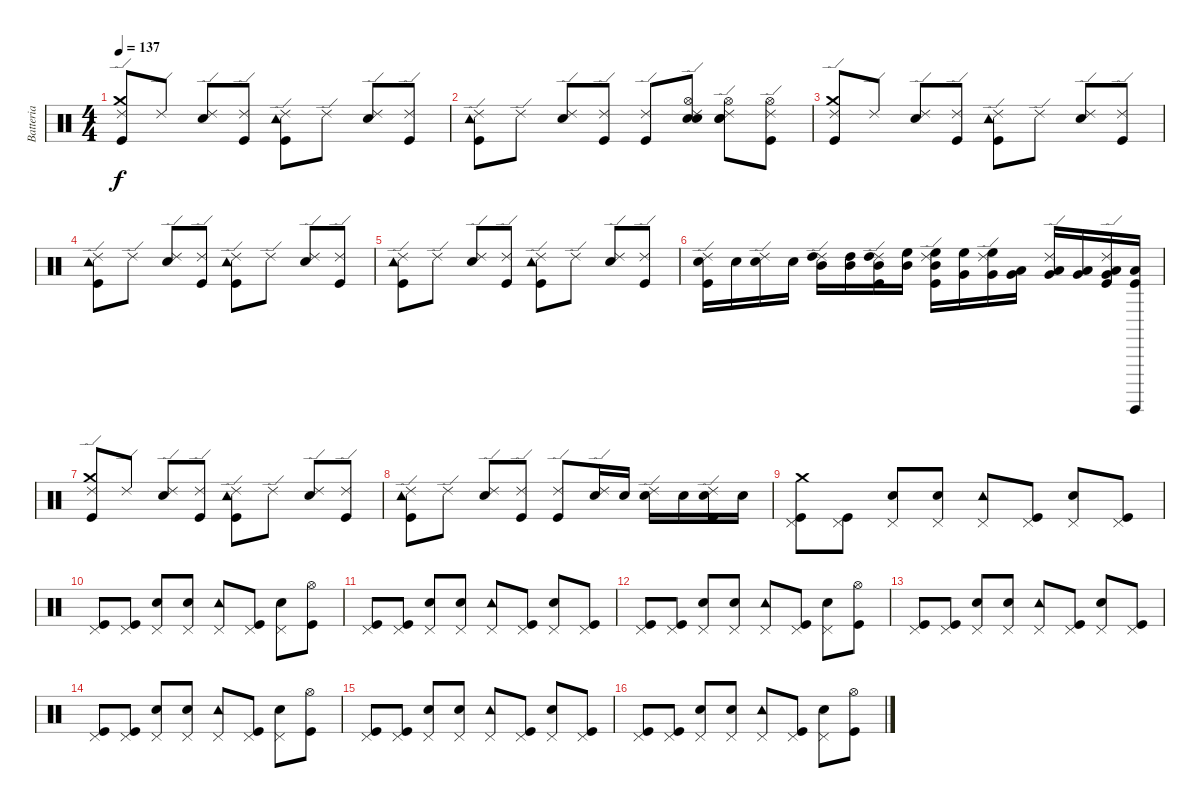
\track ("Batteria" "Batteria") {instrument percussion}
\staff {score}
\articulation defaults
\ts (4 4)
\tempo 137
\clef neutral
\ks c
("Ride (edge) 2" "Crash medium (hit)" "Kick (hit)").8{dy f} "Ride (edge) 2".8 ("Ride (edge) 2" "Electric Snare (hit)").8 ("Ride (edge) 2" "Kick (hit)").8 ("Ride (edge) 2" "Tambourine (hit)" "Kick (hit)").8 "Ride (edge) 2".8 ("Ride (edge) 2" "Electric Snare (hit)").8 ("Ride (edge) 2" "Kick (hit)").8 |
("Ride (edge) 2" "Tambourine (hit)" "Kick (hit)").8 "Ride (edge) 2".8 ("Ride (edge) 2" "Electric Snare (hit)").8 ("Ride (edge) 2" "Kick (hit)").8 ("Ride (edge) 2" "Kick (hit)").8 ("Ride (edge) 2" "Hi-Hat (open)" "Snare (hit) 2" "Electric Snare (hit)").8 ("Ride (edge) 2" "Hi-Hat (open)" "Snare (hit) 2" "Electric Snare (hit)").8 ("Ride (edge) 2" "Hi-Hat (open)" "Kick (hit)").8 |
("Ride (edge) 2" "Crash medium (hit)" "Kick (hit)").8 "Ride (edge) 2".8 ("Ride (edge) 2" "Electric Snare (hit)").8 ("Ride (edge) 2" "Kick (hit)").8 ("Ride (edge) 2" "Tambourine (hit)" "Kick (hit)").8 "Ride (edge) 2".8 ("Ride (edge) 2" "Electric Snare (hit)").8 ("Ride (edge) 2" "Kick (hit)").8 |
("Ride (edge) 2" "Tambourine (hit)" "Kick (hit)").8 "Ride (edge) 2".8 ("Ride (edge) 2" "Electric Snare (hit)").8 ("Ride (edge) 2" "Kick (hit)").8 ("Ride (edge) 2" "Tambourine (hit)" "Kick (hit)").8 "Ride (edge) 2".8 ("Ride (edge) 2" "Electric Snare (hit)").8 ("Ride (edge) 2" "Kick (hit)").8 |
("Ride (edge) 2" "Tambourine (hit)" "Kick (hit)").8 "Ride (edge) 2".8 ("Ride (edge) 2" "Electric Snare (hit)").8 ("Ride (edge) 2" "Kick (hit)").8 ("Ride (edge) 2" "Tambourine (hit)" "Kick (hit)").8 "Ride (edge) 2".8 ("Ride (edge) 2" "Electric Snare (hit)").8 ("Ride (edge) 2" "Kick (hit)").8 |
("Ride (edge) 2" "Electric Snare (hit)" "Kick (hit)").16 "Electric Snare (hit)".16 ("Ride (edge) 2" "Electric Snare (hit)").16 "Electric Snare (hit)".16 ("Ride (edge) 2" "Mid Tom (hit)" "High Tom (hit)").16 ("Mid Tom (hit)" "High Tom (hit)").16 ("Ride (edge) 2" "Mid Tom (hit)" "High Tom (hit)" "Kick (hit)").16 ("High Floor Tom (hit)" "Mid Tom (hit)").16 ("Ride (edge) 2" "High Floor Tom (hit)" "Mid Tom (hit)" "Kick (hit)").16 ("High Floor Tom (hit)" "Very Low Tom (hit)").16 ("Ride (edge) 2" "High Floor Tom (hit)" "Very Low Tom (hit)").16 ("Very Low Tom (hit)" "Low Tom (hit)").16 ("Ride (edge) 2" "Very Low Tom (hit)" "Low Tom (hit)").16 ("Very Low Tom (hit)" "Low Floor Tom (hit)").16 ("Ride (edge) 2" "Very Low Tom (hit)" "Low Floor Tom (hit)" "Kick (hit)").16 ("Surdo (hit)" "Low Floor Tom (hit)" "Kick (hit)").16 |
("Ride (edge) 2" "Crash medium (hit)" "Kick (hit)").8 "Ride (edge) 2".8 ("Ride (edge) 2" "Electric Snare (hit)").8 ("Ride (edge) 2" "Kick (hit)").8 ("Ride (edge) 2" "Tambourine (hit)" "Kick (hit)").8 "Ride (edge) 2".8 ("Ride (edge) 2" "Electric Snare (hit)").8 ("Ride (edge) 2" "Kick (hit)").8 |
("Ride (edge) 2" "Tambourine (hit)" "Kick (hit)").8 "Ride (edge) 2".8 ("Ride (edge) 2" "Electric Snare (hit)").8 ("Ride (edge) 2" "Kick (hit)").8 ("Ride (edge) 2" "Kick (hit)").8 ("Ride (edge) 2" "Electric Snare (hit)").16 "Electric Snare (hit)".16 ("Ride (edge) 2" "Electric Snare (hit)").16 "Electric Snare (hit)".16 ("Ride (edge) 2" "Electric Snare (hit)" "Kick (hit)").16 "Electric Snare (hit)".16 |
("Pedal Hi-Hat (hit)" "Crash medium (hit)" "Kick (hit)").8 ("Pedal Hi-Hat (hit)" "Kick (hit)").8 ("Pedal Hi-Hat (hit)" "Electric Snare (hit)").8 ("Pedal Hi-Hat (hit)" "Electric Snare (hit)").8 ("Pedal Hi-Hat (hit)" "Tambourine (hit)").8 ("Pedal Hi-Hat (hit)" "Kick (hit)").8 ("Pedal Hi-Hat (hit)" "Electric Snare (hit)").8 ("Pedal Hi-Hat (hit)" "Kick (hit)").8 |
("Pedal Hi-Hat (hit)" "Kick (hit)").8 ("Pedal Hi-Hat (hit)" "Kick (hit)").8 ("Pedal Hi-Hat (hit)" "Electric Snare (hit)").8 ("Pedal Hi-Hat (hit)" "Electric Snare (hit)").8 ("Pedal Hi-Hat (hit)" "Tambourine (hit)").8 ("Pedal Hi-Hat (hit)" "Kick (hit)").8 ("Pedal Hi-Hat (hit)" "Electric Snare (hit)").8 ("Hi-Hat (open)" "Kick (hit)").8 |
("Pedal Hi-Hat (hit)" "Kick (hit)").8 ("Pedal Hi-Hat (hit)" "Kick (hit)").8 ("Pedal Hi-Hat (hit)" "Electric Snare (hit)").8 ("Pedal Hi-Hat (hit)" "Electric Snare (hit)").8 ("Pedal Hi-Hat (hit)" "Tambourine (hit)").8 ("Pedal Hi-Hat (hit)" "Kick (hit)").8 ("Pedal Hi-Hat (hit)" "Electric Snare (hit)").8 ("Pedal Hi-Hat (hit)" "Kick (hit)").8 |
("Pedal Hi-Hat (hit)" "Kick (hit)").8 ("Pedal Hi-Hat (hit)" "Kick (hit)").8 ("Pedal Hi-Hat (hit)" "Electric Snare (hit)").8 ("Pedal Hi-Hat (hit)" "Electric Snare (hit)").8 ("Pedal Hi-Hat (hit)" "Tambourine (hit)").8 ("Pedal Hi-Hat (hit)" "Kick (hit)").8 ("Pedal Hi-Hat (hit)" "Electric Snare (hit)").8 ("Hi-Hat (open)" "Kick (hit)").8 |
("Pedal Hi-Hat (hit)" "Kick (hit)").8 ("Pedal Hi-Hat (hit)" "Kick (hit)").8 ("Pedal Hi-Hat (hit)" "Electric Snare (hit)").8 ("Pedal Hi-Hat (hit)" "Electric Snare (hit)").8 ("Pedal Hi-Hat (hit)" "Tambourine (hit)").8 ("Pedal Hi-Hat (hit)" "Kick (hit)").8 ("Pedal Hi-Hat (hit)" "Electric Snare (hit)").8 ("Pedal Hi-Hat (hit)" "Kick (hit)").8 |
("Pedal Hi-Hat (hit)" "Kick (hit)").8 ("Pedal Hi-Hat (hit)" "Kick (hit)").8 ("Pedal Hi-Hat (hit)" "Electric Snare (hit)").8 ("Pedal Hi-Hat (hit)" "Electric Snare (hit)").8 ("Pedal Hi-Hat (hit)" "Tambourine (hit)").8 ("Pedal Hi-Hat (hit)" "Kick (hit)").8 ("Pedal Hi-Hat (hit)" "Electric Snare (hit)").8 ("Hi-Hat (open)" "Kick (hit)").8 |
("Pedal Hi-Hat (hit)" "Kick (hit)").8 ("Pedal Hi-Hat (hit)" "Kick (hit)").8 ("Pedal Hi-Hat (hit)" "Electric Snare (hit)").8 ("Pedal Hi-Hat (hit)" "Electric Snare (hit)").8 ("Pedal Hi-Hat (hit)" "Tambourine (hit)").8 ("Pedal Hi-Hat (hit)" "Kick (hit)").8 ("Pedal Hi-Hat (hit)" "Electric Snare (hit)").8 ("Pedal Hi-Hat (hit)" "Kick (hit)").8 |
("Pedal Hi-Hat (hit)" "Kick (hit)").8 ("Pedal Hi-Hat (hit)" "Kick (hit)").8 ("Pedal Hi-Hat (hit)" "Electric Snare (hit)").8 ("Pedal Hi-Hat (hit)" "Electric Snare (hit)").8 ("Pedal Hi-Hat (hit)" "Tambourine (hit)").8 ("Pedal Hi-Hat (hit)" "Kick (hit)").8 ("Pedal Hi-Hat (hit)" "Electric Snare (hit)").8 ("Hi-Hat (open)" "Kick (hit)").8
